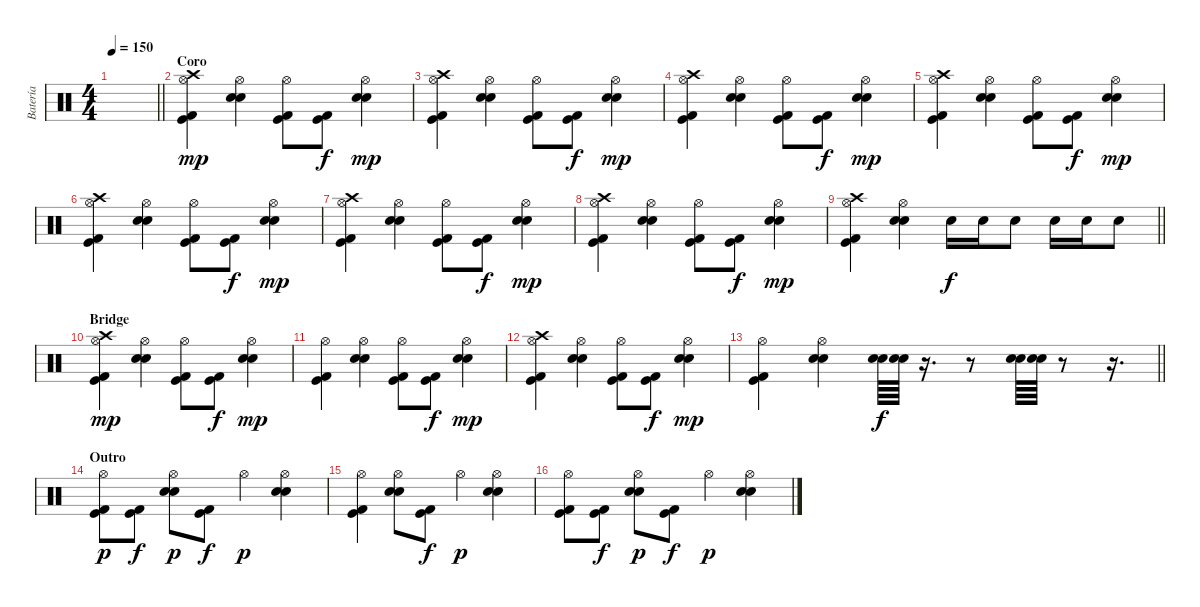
\track ("Batería" "Batería") {instrument percussion}
\staff {score}
\articulation defaults
\ts (4 4)
\tempo 150
\clef neutral
\barLineRight lightlight
\ks c
|
\section ("" "Coro")
("Crash high (hit)" "Hi-Hat (open)" "Kick (hit)" "Kick (hit) 2").4{dy mp} ("Hi-Hat (open)" "Snare (hit) 2" "Electric Snare (hit)").4 ("Hi-Hat (open)" "Kick (hit)" "Kick (hit) 2").8 ("Kick (hit) 2" "Kick (hit)").8{dy f} ("Hi-Hat (open)" "Snare (hit) 2" "Electric Snare (hit)").4{dy mp} |
("Crash high (hit)" "Hi-Hat (open)" "Kick (hit)" "Kick (hit) 2").4 ("Hi-Hat (open)" "Snare (hit) 2" "Electric Snare (hit)").4 ("Hi-Hat (open)" "Kick (hit)" "Kick (hit) 2").8 ("Kick (hit) 2" "Kick (hit)").8{dy f} ("Hi-Hat (open)" "Snare (hit) 2" "Electric Snare (hit)").4{dy mp} |
("Crash high (hit)" "Hi-Hat (open)" "Kick (hit)" "Kick (hit) 2").4 ("Hi-Hat (open)" "Snare (hit) 2" "Electric Snare (hit)").4 ("Hi-Hat (open)" "Kick (hit)" "Kick (hit) 2").8 ("Kick (hit)" "Kick (hit) 2").8{dy f} ("Hi-Hat (open)" "Snare (hit) 2" "Electric Snare (hit)").4{dy mp} |
("Crash high (hit)" "Hi-Hat (open)" "Kick (hit)" "Kick (hit) 2").4 ("Hi-Hat (open)" "Snare (hit) 2" "Electric Snare (hit)").4 ("Hi-Hat (open)" "Kick (hit)" "Kick (hit) 2").8 ("Kick (hit)" "Kick (hit) 2").8{dy f} ("Hi-Hat (open)" "Snare (hit) 2" "Electric Snare (hit)").4{dy mp} |
("Crash high (hit)" "Hi-Hat (open)" "Kick (hit)" "Kick (hit) 2").4 ("Hi-Hat (open)" "Snare (hit) 2" "Electric Snare (hit)").4 ("Hi-Hat (open)" "Kick (hit)" "Kick (hit) 2").8 ("Kick (hit) 2" "Kick (hit)").8{dy f} ("Hi-Hat (open)" "Snare (hit) 2" "Electric Snare (hit)").4{dy mp} |
("Crash high (hit)" "Hi-Hat (open)" "Kick (hit)" "Kick (hit) 2").4 ("Hi-Hat (open)" "Snare (hit) 2" "Electric Snare (hit)").4 ("Hi-Hat (open)" "Kick (hit)" "Kick (hit) 2").8 ("Kick (hit) 2" "Kick (hit)").8{dy f} ("Hi-Hat (open)" "Snare (hit) 2" "Electric Snare (hit)").4{dy mp} |
("Crash high (hit)" "Hi-Hat (open)" "Kick (hit)" "Kick (hit) 2").4 ("Hi-Hat (open)" "Snare (hit) 2" "Electric Snare (hit)").4 ("Hi-Hat (open)" "Kick (hit)" "Kick (hit) 2").8 ("Kick (hit)" "Kick (hit) 2").8{dy f} ("Hi-Hat (open)" "Snare (hit) 2" "Electric Snare (hit)").4{dy mp} |
\barLineRight lightlight
("Crash high (hit)" "Hi-Hat (open)" "Kick (hit)" "Kick (hit) 2").4 ("Hi-Hat (open)" "Snare (hit) 2" "Electric Snare (hit)").4 "Electric Snare (hit)".16{dy f} "Electric Snare (hit)".16 "Electric Snare (hit)".8 "Electric Snare (hit)".16 "Electric Snare (hit)".16 "Electric Snare (hit)".8 |
\section ("" "Bridge")
("Crash high (hit)" "Hi-Hat (open)" "Kick (hit)" "Kick (hit) 2").4{dy mp} ("Hi-Hat (open)" "Snare (hit) 2" "Electric Snare (hit)").4 ("Hi-Hat (open)" "Kick (hit)" "Kick (hit) 2").8 ("Kick (hit) 2" "Kick (hit)").8{dy f} ("Hi-Hat (open)" "Snare (hit) 2" "Electric Snare (hit)").4{dy mp} |
("Hi-Hat (open)" "Kick (hit)" "Kick (hit) 2").4 ("Hi-Hat (open)" "Snare (hit) 2" "Electric Snare (hit)").4 ("Hi-Hat (open)" "Kick (hit)" "Kick (hit) 2").8 ("Kick (hit) 2" "Kick (hit)").8{dy f} ("Hi-Hat (open)" "Snare (hit) 2" "Electric Snare (hit)").4{dy mp} |
("Crash high (hit)" "Hi-Hat (open)" "Kick (hit)" "Kick (hit) 2").4 ("Hi-Hat (open)" "Snare (hit) 2" "Electric Snare (hit)").4 ("Hi-Hat (open)" "Kick (hit)" "Kick (hit) 2").8 ("Kick (hit)" "Kick (hit) 2").8{dy f} ("Hi-Hat (open)" "Snare (hit) 2" "Electric Snare (hit)").4{dy mp} |
\barLineRight lightlight
("Hi-Hat (open)" "Kick (hit)" "Kick (hit) 2").4 ("Hi-Hat (open)" "Snare (hit) 2" "Electric Snare (hit)").4 ("Snare (hit) 2" "Electric Snare (hit)").64{dy f} ("Snare (hit) 2" "Electric Snare (hit)").64 r.16{d} r.8 ("Snare (hit) 2" "Electric Snare (hit)").64 ("Snare (hit) 2" "Electric Snare (hit)").64 r.8 r.16{d} |
\section ("" "Outro")
("Kick (hit)" "Kick (hit) 2" "Hi-Hat (open)").8{dy p} ("Kick (hit)" "Kick (hit) 2").8{dy f} ("Electric Snare (hit)" "Snare (hit) 2" "Hi-Hat (open)").8{dy p} ("Kick (hit)" "Kick (hit) 2").8{dy f} "Hi-Hat (open)".4{dy p} ("Electric Snare (hit)" "Snare (hit) 2" "Hi-Hat (open)").4 |
("Kick (hit)" "Kick (hit) 2" "Hi-Hat (open)").4 ("Snare (hit) 2" "Electric Snare (hit)" "Hi-Hat (open)").8 ("Kick (hit)" "Kick (hit) 2").8{dy f} "Hi-Hat (open)".4{dy p} ("Electric Snare (hit)" "Snare (hit) 2" "Hi-Hat (open)").4 |
("Kick (hit)" "Kick (hit) 2" "Hi-Hat (open)").8 ("Kick (hit)" "Kick (hit) 2").8{dy f} ("Electric Snare (hit)" "Snare (hit) 2" "Hi-Hat (open)").8{dy p} ("Kick (hit)" "Kick (hit) 2").8{dy f} "Hi-Hat (open)".4{dy p} ("Electric Snare (hit)" "Snare (hit) 2" "Hi-Hat (open)").4
